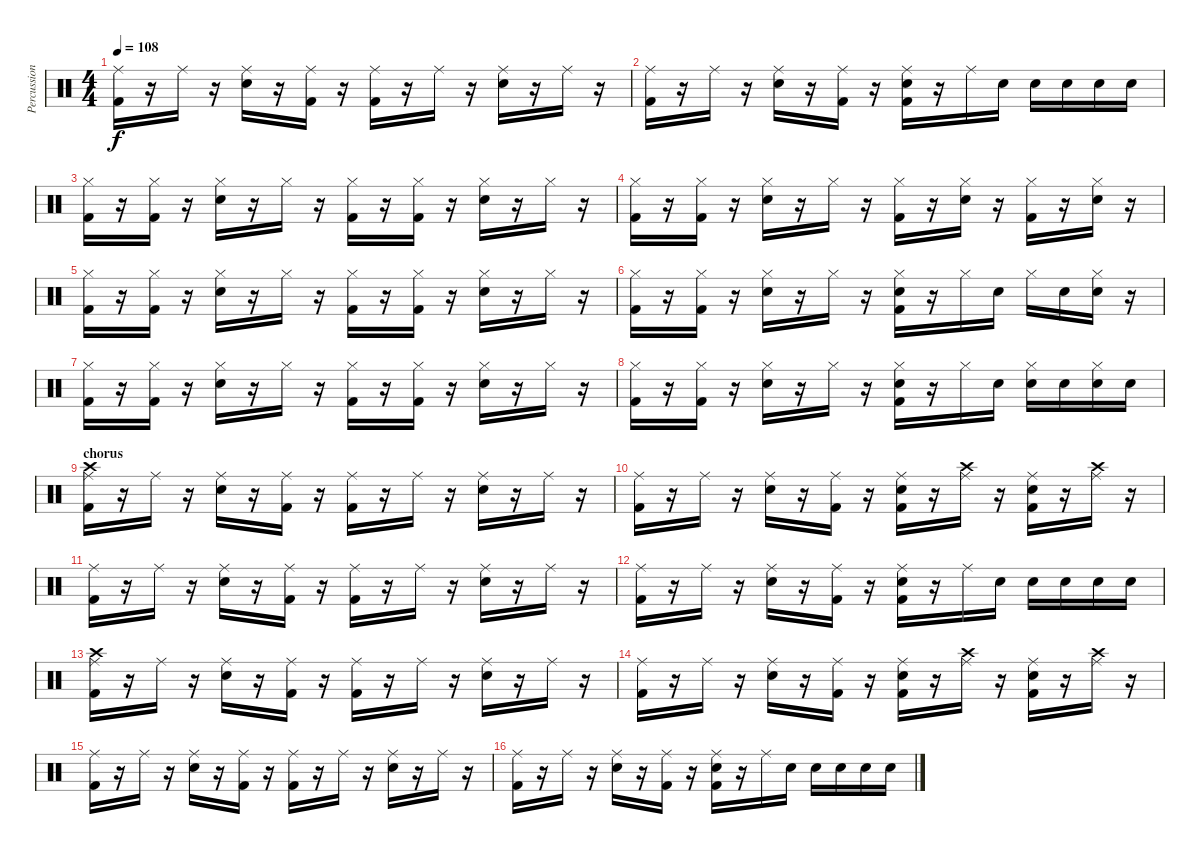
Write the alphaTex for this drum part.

\track ("Percussion" "Percussion") {instrument percussion}
\staff {score}
\articulation defaults
\ts (4 4)
\tempo 108
\clef neutral
\ks c
("Ride (middle)" "Kick (hit) 2").16{dy f} r.16 "Ride (middle)".16 r.16 ("Snare (hit) 2" "Ride (middle)").16 r.16 ("Ride (middle)" "Kick (hit) 2").16 r.16 ("Ride (middle)" "Kick (hit) 2").16 r.16 "Ride (middle)".16 r.16 ("Snare (hit) 2" "Ride (middle)").16 r.16 "Ride (middle)".16 r.16 |
("Ride (middle)" "Kick (hit) 2").16 r.16 "Ride (middle)".16 r.16 ("Snare (hit) 2" "Ride (middle)").16 r.16 ("Ride (middle)" "Kick (hit) 2").16 r.16 ("Snare (hit) 2" "Ride (middle)" "Kick (hit) 2").16 r.16 "Ride (middle)".16 "Snare (hit) 2".16 "Snare (hit) 2".16 "Snare (hit) 2".16 "Snare (hit) 2".16 "Snare (hit) 2".16 |
("Hi-Hat (closed)" "Kick (hit) 2").16 r.16 ("Hi-Hat (closed)" "Kick (hit) 2").16 r.16 ("Snare (hit) 2" "Hi-Hat (closed)").16 r.16 "Hi-Hat (closed)".16 r.16 ("Hi-Hat (closed)" "Kick (hit) 2").16 r.16 ("Hi-Hat (closed)" "Kick (hit) 2").16 r.16 ("Snare (hit) 2" "Hi-Hat (closed)").16 r.16 "Hi-Hat (closed)".16 r.16 |
("Hi-Hat (closed)" "Kick (hit) 2").16 r.16 ("Hi-Hat (closed)" "Kick (hit) 2").16 r.16 ("Snare (hit) 2" "Hi-Hat (closed)").16 r.16 "Hi-Hat (closed)".16 r.16 ("Hi-Hat (closed)" "Kick (hit) 2").16 r.16 ("Snare (hit) 2" "Hi-Hat (closed)").16 r.16 ("Hi-Hat (closed)" "Kick (hit) 2").16 r.16 ("Snare (hit) 2" "Hi-Hat (closed)").16 r.16 |
("Hi-Hat (closed)" "Kick (hit) 2").16 r.16 ("Hi-Hat (closed)" "Kick (hit) 2").16 r.16 ("Snare (hit) 2" "Hi-Hat (closed)").16 r.16 "Hi-Hat (closed)".16 r.16 ("Hi-Hat (closed)" "Kick (hit) 2").16 r.16 ("Hi-Hat (closed)" "Kick (hit) 2").16 r.16 ("Snare (hit) 2" "Hi-Hat (closed)").16 r.16 "Hi-Hat (closed)".16 r.16 |
("Hi-Hat (closed)" "Kick (hit) 2").16 r.16 ("Hi-Hat (closed)" "Kick (hit) 2").16 r.16 ("Snare (hit) 2" "Hi-Hat (closed)").16 r.16 "Hi-Hat (closed)".16 r.16 ("Snare (hit) 2" "Hi-Hat (closed)" "Kick (hit) 2").16 r.16 "Hi-Hat (closed)".16 "Snare (hit) 2".16 "Hi-Hat (closed)".16 "Snare (hit) 2".16 ("Snare (hit) 2" "Hi-Hat (closed)").16 r.16 |
("Hi-Hat (closed)" "Kick (hit) 2").16 r.16 ("Hi-Hat (closed)" "Kick (hit) 2").16 r.16 ("Snare (hit) 2" "Hi-Hat (closed)").16 r.16 "Hi-Hat (closed)".16 r.16 ("Hi-Hat (closed)" "Kick (hit) 2").16 r.16 ("Hi-Hat (closed)" "Kick (hit) 2").16 r.16 ("Snare (hit) 2" "Hi-Hat (closed)").16 r.16 "Hi-Hat (closed)".16 r.16 |
("Hi-Hat (closed)" "Kick (hit) 2").16 r.16 ("Hi-Hat (closed)" "Kick (hit) 2").16 r.16 ("Snare (hit) 2" "Hi-Hat (closed)").16 r.16 "Hi-Hat (closed)".16 r.16 ("Snare (hit) 2" "Hi-Hat (closed)" "Kick (hit) 2").16 r.16 "Hi-Hat (closed)".16 "Snare (hit) 2".16 ("Snare (hit) 2" "Hi-Hat (closed)").16 "Snare (hit) 2".16 ("Snare (hit) 2" "Hi-Hat (closed)").16 "Snare (hit) 2".16 |
\section ("" "chorus")
("Crash high (hit)" "Ride (middle)" "Kick (hit) 2").16 r.16 "Ride (middle)".16 r.16 ("Snare (hit) 2" "Ride (middle)").16 r.16 ("Ride (middle)" "Kick (hit) 2").16 r.16 ("Ride (middle)" "Kick (hit) 2").16 r.16 "Ride (middle)".16 r.16 ("Snare (hit) 2" "Ride (middle)").16 r.16 "Ride (middle)".16 r.16 |
("Ride (middle)" "Kick (hit) 2").16 r.16 "Ride (middle)".16 r.16 ("Snare (hit) 2" "Ride (middle)").16 r.16 ("Ride (middle)" "Kick (hit) 2").16 r.16 ("Snare (hit) 2" "Ride (middle)" "Kick (hit) 2").16 r.16 ("Crash high (hit)" "Ride (middle)").16 r.16 ("Snare (hit) 2" "Ride (middle)" "Kick (hit) 2").16 r.16 ("Crash high (hit)" "Ride (middle)").16 r.16 |
("Ride (middle)" "Kick (hit) 2").16 r.16 "Ride (middle)".16 r.16 ("Snare (hit) 2" "Ride (middle)").16 r.16 ("Ride (middle)" "Kick (hit) 2").16 r.16 ("Ride (middle)" "Kick (hit) 2").16 r.16 "Ride (middle)".16 r.16 ("Snare (hit) 2" "Ride (middle)").16 r.16 "Ride (middle)".16 r.16 |
("Ride (middle)" "Kick (hit) 2").16 r.16 "Ride (middle)".16 r.16 ("Snare (hit) 2" "Ride (middle)").16 r.16 ("Ride (middle)" "Kick (hit) 2").16 r.16 ("Snare (hit) 2" "Ride (middle)" "Kick (hit) 2").16 r.16 "Ride (middle)".16 "Snare (hit) 2".16 "Snare (hit) 2".16 "Snare (hit) 2".16 "Snare (hit) 2".16 "Snare (hit) 2".16 |
("Crash high (hit)" "Ride (middle)" "Kick (hit) 2").16 r.16 "Ride (middle)".16 r.16 ("Snare (hit) 2" "Ride (middle)").16 r.16 ("Ride (middle)" "Kick (hit) 2").16 r.16 ("Ride (middle)" "Kick (hit) 2").16 r.16 "Ride (middle)".16 r.16 ("Snare (hit) 2" "Ride (middle)").16 r.16 "Ride (middle)".16 r.16 |
("Ride (middle)" "Kick (hit) 2").16 r.16 "Ride (middle)".16 r.16 ("Snare (hit) 2" "Ride (middle)").16 r.16 ("Ride (middle)" "Kick (hit) 2").16 r.16 ("Snare (hit) 2" "Ride (middle)" "Kick (hit) 2").16 r.16 ("Crash high (hit)" "Ride (middle)").16 r.16 ("Snare (hit) 2" "Ride (middle)" "Kick (hit) 2").16 r.16 ("Crash high (hit)" "Ride (middle)").16 r.16 |
("Ride (middle)" "Kick (hit) 2").16 r.16 "Ride (middle)".16 r.16 ("Snare (hit) 2" "Ride (middle)").16 r.16 ("Ride (middle)" "Kick (hit) 2").16 r.16 ("Ride (middle)" "Kick (hit) 2").16 r.16 "Ride (middle)".16 r.16 ("Snare (hit) 2" "Ride (middle)").16 r.16 "Ride (middle)".16 r.16 |
("Ride (middle)" "Kick (hit) 2").16 r.16 "Ride (middle)".16 r.16 ("Snare (hit) 2" "Ride (middle)").16 r.16 ("Ride (middle)" "Kick (hit) 2").16 r.16 ("Snare (hit) 2" "Ride (middle)" "Kick (hit) 2").16 r.16 "Ride (middle)".16 "Snare (hit) 2".16 "Snare (hit) 2".16 "Snare (hit) 2".16 "Snare (hit) 2".16 "Snare (hit) 2".16
